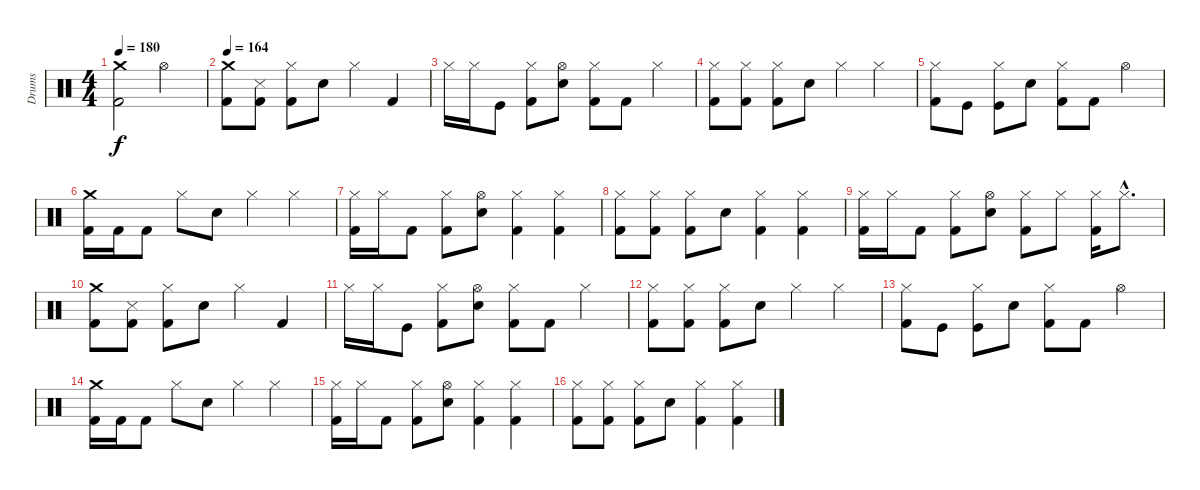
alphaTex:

\track ("Drums" "Drums") {instrument percussion}
\staff {score}
\articulation defaults
\ts (4 4)
\tempo 180
\clef neutral
\ks c
("Crash medium (hit)" "Kick (hit) 2").2{dy f} "Hi-Hat (open)".2 |
\tempo 164
("Crash medium (hit)" "Kick (hit) 2").8 ("Snare (side stick) 3" "Kick (hit) 2").8 ("Hi-Hat (closed)" "Kick (hit) 2").8 "Electric Snare (hit)".8 "Hi-Hat (closed)".4 "Kick (hit) 2".4 |
"Hi-Hat (closed)".16 "Hi-Hat (closed)".16 "Kick (hit)".8 ("Hi-Hat (closed)" "Kick (hit) 2").8 ("Hi-Hat (open)" "Electric Snare (hit)").8 ("Kick (hit) 2" "Hi-Hat (closed)").8 "Kick (hit) 2".8 "Hi-Hat (closed)".4 |
("Hi-Hat (closed)" "Kick (hit) 2").8 ("Hi-Hat (closed)" "Kick (hit) 2").8 ("Hi-Hat (closed)" "Kick (hit) 2").8 "Electric Snare (hit)".8 "Hi-Hat (closed)".4 "Hi-Hat (closed)".4 |
("Hi-Hat (closed)" "Kick (hit) 2").8 "Kick (hit)".8 ("Hi-Hat (closed)" "Kick (hit)").8 "Electric Snare (hit)".8 ("Hi-Hat (closed)" "Kick (hit) 2").8 "Kick (hit) 2".8 "Hi-Hat (open)".4 |
("Crash medium (hit)" "Kick (hit) 2").16 "Kick (hit) 2".16 "Kick (hit) 2".8 "Hi-Hat (closed)".8 "Electric Snare (hit)".8 "Hi-Hat (closed)".4 "Hi-Hat (closed)".4 |
("Hi-Hat (closed)" "Kick (hit) 2").16 "Hi-Hat (closed)".16 "Kick (hit) 2".8 ("Hi-Hat (closed)" "Kick (hit) 2").8 ("Hi-Hat (open)" "Electric Snare (hit)").8 ("Hi-Hat (closed)" "Kick (hit) 2").4 ("Hi-Hat (closed)" "Kick (hit) 2").4 |
("Hi-Hat (closed)" "Kick (hit) 2").8 ("Hi-Hat (closed)" "Kick (hit) 2").8 ("Hi-Hat (closed)" "Kick (hit) 2").8 "Electric Snare (hit)".8 ("Hi-Hat (closed)" "Kick (hit) 2").4 ("Hi-Hat (closed)" "Kick (hit) 2").4 |
("Hi-Hat (closed)" "Kick (hit) 2").16 "Hi-Hat (closed)".16 "Kick (hit) 2".8 ("Hi-Hat (closed)" "Kick (hit) 2").8 ("Hi-Hat (open)" "Electric Snare (hit)").8 ("Hi-Hat (closed)" "Kick (hit) 2").8 "Hi-Hat (closed)".8 ("Hi-Hat (closed)" "Kick (hit) 2").16 "Hi-Hat (closed)"{hac}.8{d} |
("Crash medium (hit)" "Kick (hit) 2").8 ("Snare (side stick) 3" "Kick (hit) 2").8 ("Hi-Hat (closed)" "Kick (hit) 2").8 "Electric Snare (hit)".8 "Hi-Hat (closed)".4 "Kick (hit) 2".4 |
"Hi-Hat (closed)".16 "Hi-Hat (closed)".16 "Kick (hit)".8 ("Hi-Hat (closed)" "Kick (hit) 2").8 ("Hi-Hat (open)" "Electric Snare (hit)").8 ("Kick (hit) 2" "Hi-Hat (closed)").8 "Kick (hit) 2".8 "Hi-Hat (closed)".4 |
("Hi-Hat (closed)" "Kick (hit) 2").8 ("Hi-Hat (closed)" "Kick (hit) 2").8 ("Hi-Hat (closed)" "Kick (hit) 2").8 "Electric Snare (hit)".8 "Hi-Hat (closed)".4 "Hi-Hat (closed)".4 |
("Hi-Hat (closed)" "Kick (hit) 2").8 "Kick (hit)".8 ("Hi-Hat (closed)" "Kick (hit)").8 "Electric Snare (hit)".8 ("Hi-Hat (closed)" "Kick (hit) 2").8 "Kick (hit) 2".8 "Hi-Hat (open)".4 |
("Crash medium (hit)" "Kick (hit) 2").16 "Kick (hit) 2".16 "Kick (hit) 2".8 "Hi-Hat (closed)".8 "Electric Snare (hit)".8 "Hi-Hat (closed)".4 "Hi-Hat (closed)".4 |
("Hi-Hat (closed)" "Kick (hit) 2").16 "Hi-Hat (closed)".16 "Kick (hit) 2".8 ("Hi-Hat (closed)" "Kick (hit) 2").8 ("Hi-Hat (open)" "Electric Snare (hit)").8 ("Hi-Hat (closed)" "Kick (hit) 2").4 ("Hi-Hat (closed)" "Kick (hit) 2").4 |
("Hi-Hat (closed)" "Kick (hit) 2").8 ("Hi-Hat (closed)" "Kick (hit) 2").8 ("Hi-Hat (closed)" "Kick (hit) 2").8 "Electric Snare (hit)".8 ("Hi-Hat (closed)" "Kick (hit) 2").4 ("Hi-Hat (closed)" "Kick (hit) 2").4
